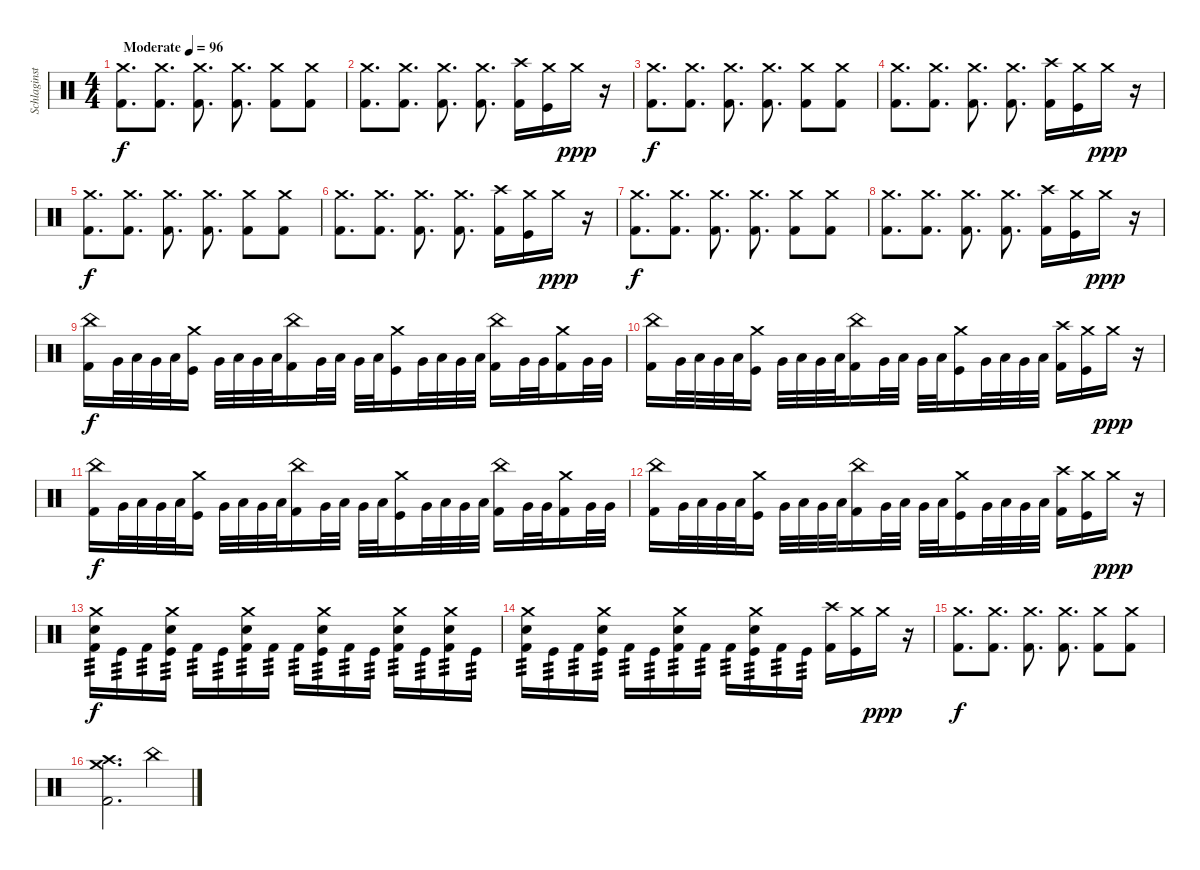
\track ("Schlaginstrumente - Auswahl" "Schlaginst") {instrument percussion}
\staff
\articulation defaults
\ts (4 4)
\tempo (96 "Moderate")
\clef neutral
\ks c
("Crash medium (hit)" "Kick (hit) 2").8{d dy f} ("Crash medium (hit)" "Kick (hit) 2").8{d} ("Crash medium (hit)" "Kick (hit) 2").8{d} ("Crash medium (hit)" "Kick (hit) 2").8{d} ("Crash medium (hit)" "Kick (hit) 2").8 ("Crash medium (hit)" "Kick (hit) 2").8 |
("Crash medium (hit)" "Kick (hit) 2").8{d} ("Crash medium (hit)" "Kick (hit) 2").8{d} ("Crash medium (hit)" "Kick (hit) 2").8{d} ("Crash medium (hit)" "Kick (hit) 2").8{d} ("Crash high (hit)" "Kick (hit) 2").16 ("Crash medium (hit)" "Kick (hit)").16 "Crash medium (hit)".16{dy ppp} r.16 |
("Crash medium (hit)" "Kick (hit) 2").8{d dy f} ("Crash medium (hit)" "Kick (hit) 2").8{d} ("Crash medium (hit)" "Kick (hit) 2").8{d} ("Crash medium (hit)" "Kick (hit) 2").8{d} ("Crash medium (hit)" "Kick (hit) 2").8 ("Crash medium (hit)" "Kick (hit) 2").8 |
("Crash medium (hit)" "Kick (hit) 2").8{d} ("Crash medium (hit)" "Kick (hit) 2").8{d} ("Crash medium (hit)" "Kick (hit) 2").8{d} ("Crash medium (hit)" "Kick (hit) 2").8{d} ("Crash high (hit)" "Kick (hit) 2").16 ("Crash medium (hit)" "Kick (hit)").16 "Crash medium (hit)".16{dy ppp} r.16 |
("Crash medium (hit)" "Kick (hit) 2").8{d dy f} ("Crash medium (hit)" "Kick (hit) 2").8{d} ("Crash medium (hit)" "Kick (hit) 2").8{d} ("Crash medium (hit)" "Kick (hit) 2").8{d} ("Crash medium (hit)" "Kick (hit) 2").8 ("Crash medium (hit)" "Kick (hit) 2").8 |
("Crash medium (hit)" "Kick (hit) 2").8{d} ("Crash medium (hit)" "Kick (hit) 2").8{d} ("Crash medium (hit)" "Kick (hit) 2").8{d} ("Crash medium (hit)" "Kick (hit) 2").8{d} ("Crash high (hit)" "Kick (hit) 2").16 ("Crash medium (hit)" "Kick (hit)").16 "Crash medium (hit)".16{dy ppp} r.16 |
("Crash medium (hit)" "Kick (hit) 2").8{d dy f} ("Crash medium (hit)" "Kick (hit) 2").8{d} ("Crash medium (hit)" "Kick (hit) 2").8{d} ("Crash medium (hit)" "Kick (hit) 2").8{d} ("Crash medium (hit)" "Kick (hit) 2").8 ("Crash medium (hit)" "Kick (hit) 2").8 |
("Crash medium (hit)" "Kick (hit) 2").8{d} ("Crash medium (hit)" "Kick (hit) 2").8{d} ("Crash medium (hit)" "Kick (hit) 2").8{d} ("Crash medium (hit)" "Kick (hit) 2").8{d} ("Crash high (hit)" "Kick (hit) 2").16 ("Crash medium (hit)" "Kick (hit)").16 "Crash medium (hit)".16{dy ppp} r.16 |
("China (hit)" "Kick (hit) 2").16{dy f} "Very Low Tom (hit)".32 "Low Floor Tom (hit)".32 "Very Low Tom (hit)".32 "Low Floor Tom (hit)".32 ("Crash medium (hit)" "Kick (hit)").16 "Very Low Tom (hit)".32 "Low Floor Tom (hit)".32 "Very Low Tom (hit)".32 "Low Floor Tom (hit)".32 ("China (hit)" "Kick (hit) 2").16 "Very Low Tom (hit)".32 "Low Floor Tom (hit)".32 "Very Low Tom (hit)".32 "Low Floor Tom (hit)".32 ("Crash medium (hit)" "Kick (hit)").16 "Very Low Tom (hit)".32 "Low Floor Tom (hit)".32 "Very Low Tom (hit)".32 "Low Floor Tom (hit)".32 ("China (hit)" "Kick (hit) 2").16 "Very Low Tom (hit)".32 "Very Low Tom (hit)".32 ("Crash medium (hit)" "Kick (hit) 2").16 "Very Low Tom (hit)".32 "Very Low Tom (hit)".32 |
("China (hit)" "Kick (hit) 2").16 "Very Low Tom (hit)".32 "Low Floor Tom (hit)".32 "Very Low Tom (hit)".32 "Low Floor Tom (hit)".32 ("Crash medium (hit)" "Kick (hit)").16 "Very Low Tom (hit)".32 "Low Floor Tom (hit)".32 "Very Low Tom (hit)".32 "Low Floor Tom (hit)".32 ("China (hit)" "Kick (hit) 2").16 "Very Low Tom (hit)".32 "Low Floor Tom (hit)".32 "Very Low Tom (hit)".32 "Low Floor Tom (hit)".32 ("Crash medium (hit)" "Kick (hit)").16 "Very Low Tom (hit)".32 "Low Floor Tom (hit)".32 "Very Low Tom (hit)".32 "Low Floor Tom (hit)".32 ("Crash high (hit)" "Kick (hit) 2").16 ("Crash medium (hit)" "Kick (hit)").16 "Crash medium (hit)".16{dy ppp} r.16 |
("China (hit)" "Kick (hit) 2").16{dy f} "Very Low Tom (hit)".32 "Low Floor Tom (hit)".32 "Very Low Tom (hit)".32 "Low Floor Tom (hit)".32 ("Crash medium (hit)" "Kick (hit)").16 "Very Low Tom (hit)".32 "Low Floor Tom (hit)".32 "Very Low Tom (hit)".32 "Low Floor Tom (hit)".32 ("China (hit)" "Kick (hit) 2").16 "Very Low Tom (hit)".32 "Low Floor Tom (hit)".32 "Very Low Tom (hit)".32 "Low Floor Tom (hit)".32 ("Crash medium (hit)" "Kick (hit)").16 "Very Low Tom (hit)".32 "Low Floor Tom (hit)".32 "Very Low Tom (hit)".32 "Low Floor Tom (hit)".32 ("China (hit)" "Kick (hit) 2").16 "Very Low Tom (hit)".32 "Very Low Tom (hit)".32 ("Crash medium (hit)" "Kick (hit) 2").16 "Very Low Tom (hit)".32 "Very Low Tom (hit)".32 |
("China (hit)" "Kick (hit) 2").16 "Very Low Tom (hit)".32 "Low Floor Tom (hit)".32 "Very Low Tom (hit)".32 "Low Floor Tom (hit)".32 ("Crash medium (hit)" "Kick (hit)").16 "Very Low Tom (hit)".32 "Low Floor Tom (hit)".32 "Very Low Tom (hit)".32 "Low Floor Tom (hit)".32 ("China (hit)" "Kick (hit) 2").16 "Very Low Tom (hit)".32 "Low Floor Tom (hit)".32 "Very Low Tom (hit)".32 "Low Floor Tom (hit)".32 ("Crash medium (hit)" "Kick (hit)").16 "Very Low Tom (hit)".32 "Low Floor Tom (hit)".32 "Very Low Tom (hit)".32 "Low Floor Tom (hit)".32 ("Crash high (hit)" "Kick (hit) 2").16 ("Crash medium (hit)" "Kick (hit)").16 "Crash medium (hit)".16{dy ppp} r.16 |
("Crash medium (hit)" "Electric Snare (hit)" "Kick (hit) 2").16{tp 3 dy f} "Kick (hit)".16{tp 3} "Kick (hit) 2".16{tp 3} ("Crash medium (hit)" "Electric Snare (hit)" "Kick (hit)").16{tp 3} "Kick (hit) 2".16{tp 3} "Kick (hit)".16{tp 3} ("Crash medium (hit)" "Electric Snare (hit)" "Kick (hit) 2").16{tp 3} "Kick (hit) 2".16{tp 3} "Kick (hit) 2".16{tp 3} ("Crash medium (hit)" "Electric Snare (hit)" "Kick (hit)").16{tp 3} "Kick (hit) 2".16{tp 3} "Kick (hit)".16{tp 3} ("Crash medium (hit)" "Electric Snare (hit)" "Kick (hit) 2").16{tp 3} "Kick (hit)".16{tp 3} ("Crash medium (hit)" "Electric Snare (hit)" "Kick (hit) 2").16{tp 3} "Kick (hit)".16{tp 3} |
("Crash medium (hit)" "Electric Snare (hit)" "Kick (hit) 2").16{tp 3} "Kick (hit)".16{tp 3} "Kick (hit) 2".16{tp 3} ("Crash medium (hit)" "Electric Snare (hit)" "Kick (hit)").16{tp 3} "Kick (hit) 2".16{tp 3} "Kick (hit)".16{tp 3} ("Crash medium (hit)" "Electric Snare (hit)" "Kick (hit) 2").16{tp 3} "Kick (hit) 2".16{tp 3} "Kick (hit) 2".16{tp 3} ("Crash medium (hit)" "Electric Snare (hit)" "Kick (hit)").16{tp 3} "Kick (hit) 2".16{tp 3} "Kick (hit)".16{tp 3} ("Crash high (hit)" "Kick (hit) 2").16 ("Crash medium (hit)" "Kick (hit)").16 "Crash medium (hit)".16{dy ppp} r.16 |
("Crash medium (hit)" "Kick (hit) 2").8{d dy f} ("Crash medium (hit)" "Kick (hit) 2").8{d} ("Crash medium (hit)" "Kick (hit) 2").8{d} ("Crash medium (hit)" "Kick (hit) 2").8{d} ("Crash medium (hit)" "Kick (hit) 2").8 ("Crash medium (hit)" "Kick (hit) 2").8 |
("Crash medium (hit)" "Crash high (hit)" "Kick (hit) 2").2{d} "China (hit)".4
